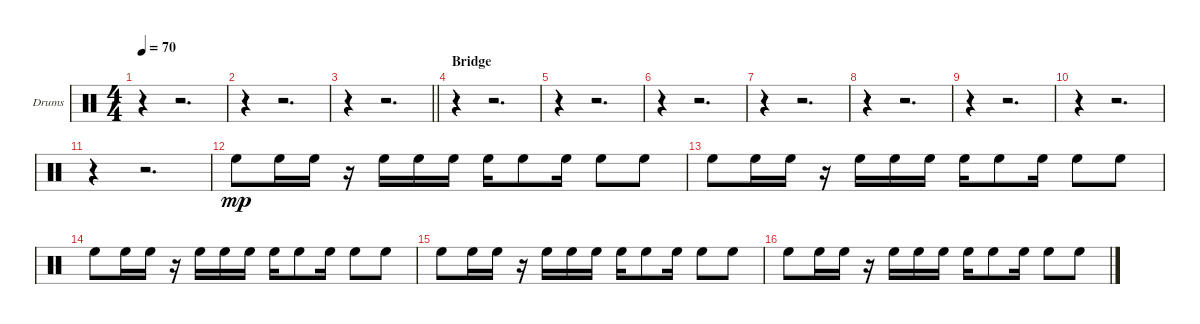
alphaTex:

\bracketExtendMode groupsimilarinstruments
\firstSystemTrackNameOrientation horizontal
\otherSystemsTrackNameOrientation horizontal
\track ("Drumkit" "Drums") {instrument percussion}
\staff {score}
\articulation defaults
\ts (4 4)
\tempo 70
\clef neutral
\ks c
r.4{dy mp} r.2{d} |
r.4 r.2{d} |
\barLineRight lightlight
r.4 r.2{d} |
\section ("" "Bridge")
r.4 r.2{d} |
r.4 r.2{d} |
r.4 r.2{d} |
r.4 r.2{d} |
r.4 r.2{d} |
r.4 r.2{d} |
r.4 r.2{d} |
r.4 r.2{d} |
"High Floor Tom (hit)".8 "High Floor Tom (hit)".16 "High Floor Tom (hit)".16 r.16 "High Floor Tom (hit)".16 "High Floor Tom (hit)".16 "High Floor Tom (hit)".16 "High Floor Tom (hit)".16 "High Floor Tom (hit)".8 "High Floor Tom (hit)".16 "High Floor Tom (hit)".8 "High Floor Tom (hit)".8 |
"High Floor Tom (hit)".8 "High Floor Tom (hit)".16 "High Floor Tom (hit)".16 r.16 "High Floor Tom (hit)".16 "High Floor Tom (hit)".16 "High Floor Tom (hit)".16 "High Floor Tom (hit)".16 "High Floor Tom (hit)".8 "High Floor Tom (hit)".16 "High Floor Tom (hit)".8 "High Floor Tom (hit)".8 |
"High Floor Tom (hit)".8 "High Floor Tom (hit)".16 "High Floor Tom (hit)".16 r.16 "High Floor Tom (hit)".16 "High Floor Tom (hit)".16 "High Floor Tom (hit)".16 "High Floor Tom (hit)".16 "High Floor Tom (hit)".8 "High Floor Tom (hit)".16 "High Floor Tom (hit)".8 "High Floor Tom (hit)".8 |
"High Floor Tom (hit)".8 "High Floor Tom (hit)".16 "High Floor Tom (hit)".16 r.16 "High Floor Tom (hit)".16 "High Floor Tom (hit)".16 "High Floor Tom (hit)".16 "High Floor Tom (hit)".16 "High Floor Tom (hit)".8 "High Floor Tom (hit)".16 "High Floor Tom (hit)".8 "High Floor Tom (hit)".8 |
"High Floor Tom (hit)".8 "High Floor Tom (hit)".16 "High Floor Tom (hit)".16 r.16 "High Floor Tom (hit)".16 "High Floor Tom (hit)".16 "High Floor Tom (hit)".16 "High Floor Tom (hit)".16 "High Floor Tom (hit)".8 "High Floor Tom (hit)".16 "High Floor Tom (hit)".8 "High Floor Tom (hit)".8
